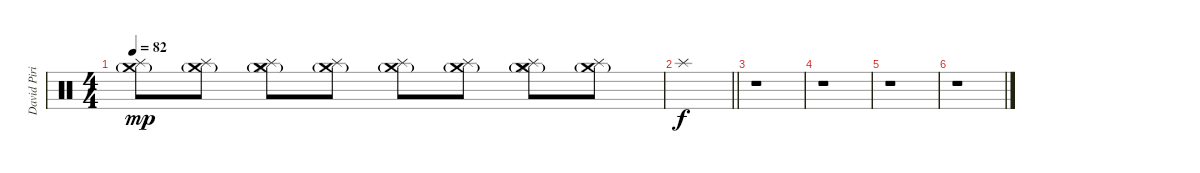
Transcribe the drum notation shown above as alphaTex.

\track ("David Piribauer (Drums)" "David Piri") {instrument percussion}
\staff {score}
\articulation defaults
\ts (4 4)
\tempo 82
\clef neutral
\ks c
("Crash medium (hit)"{g} "Splash (hit)").8{dy mp} ("Crash medium (hit)"{g} "Splash (hit)").8 ("Crash medium (hit)"{g} "Splash (hit)" "Hi-Hat (closed)").8 ("Crash medium (hit)"{g} "Splash (hit)").8 ("Crash medium (hit)"{g} "Splash (hit)").8 ("Crash medium (hit)"{g} "Splash (hit)").8 ("Crash medium (hit)"{g} "Splash (hit)" "Hi-Hat (closed)").8 ("Crash medium (hit)"{g} "Splash (hit)").8 |
\barLineRight lightlight "Splash (hit)".1{dy f}
|
r.1 |
r.1 |
r.1 |
r.1
